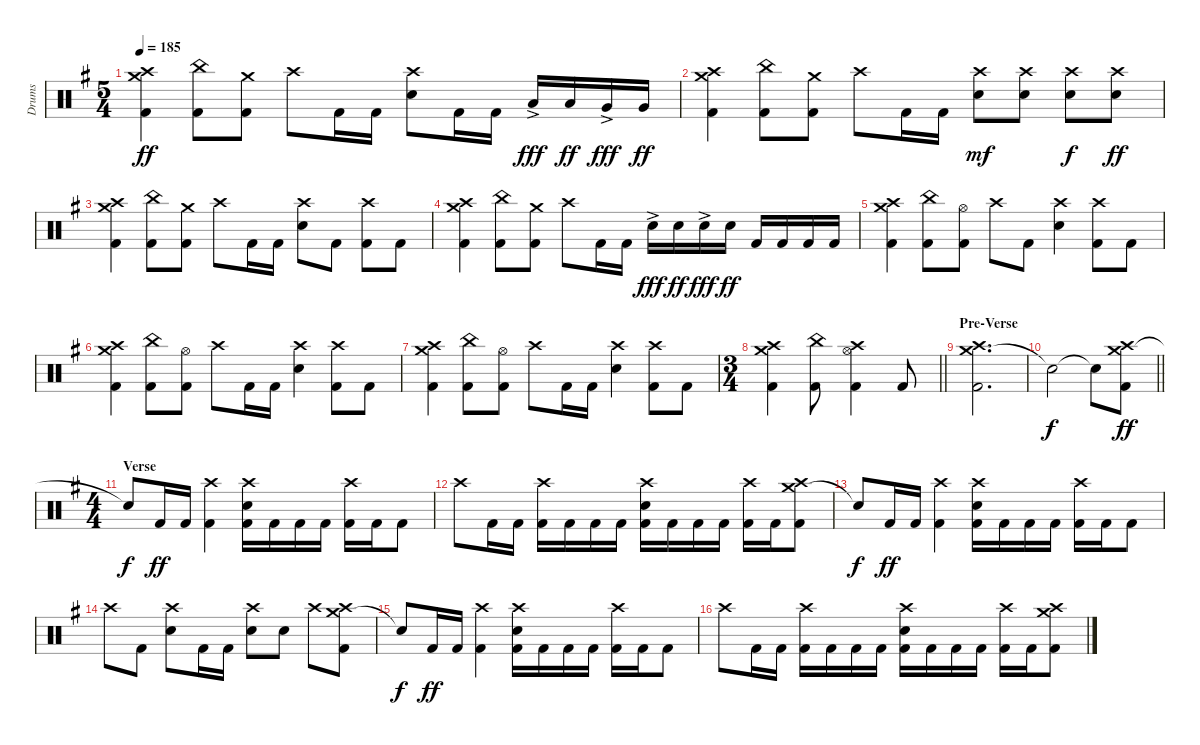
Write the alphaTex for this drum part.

\track ("Drums" "Drums") {instrument percussion}
\staff {score}
\articulation defaults
\ts (5 4)
\tempo 185
\clef neutral
\ks g
("Crash medium (hit)" "Crash high (hit)" "Kick (hit) 2").4{dy ff} ("China (hit)" "Kick (hit) 2").8 ("Crash medium (hit)" "Kick (hit) 2").8 "Crash high (hit)".8 "Kick (hit) 2".16 "Kick (hit) 2".16 ("Crash high (hit)" "Electric Snare (hit)").8 "Kick (hit) 2".16 "Kick (hit) 2".16 "Low Tom (hit)"{ac}.16{dy fff} "Low Tom (hit)".16{dy ff} "Very Low Tom (hit)"{ac}.16{dy fff} "Very Low Tom (hit)".16{dy ff} |
("Crash medium (hit)" "Crash high (hit)" "Kick (hit) 2").4 ("China (hit)" "Kick (hit) 2").8 ("Crash medium (hit)" "Kick (hit) 2").8 "Crash high (hit)".8 "Kick (hit) 2".16 "Kick (hit) 2".16 ("Crash high (hit)" "Electric Snare (hit)").8{dy mf} ("Crash high (hit)" "Electric Snare (hit)").8 ("Crash high (hit)" "Electric Snare (hit)").8{dy f} ("Crash high (hit)" "Electric Snare (hit)").8{dy ff} |
("Crash medium (hit)" "Crash high (hit)" "Kick (hit) 2").4 ("China (hit)" "Kick (hit) 2").8 ("Crash medium (hit)" "Kick (hit) 2").8 "Crash high (hit)".8 "Kick (hit) 2".16 "Kick (hit) 2".16 ("Crash high (hit)" "Electric Snare (hit)").8 "Kick (hit) 2".8 ("Crash high (hit)" "Kick (hit) 2").8 "Kick (hit) 2".8 |
("Crash medium (hit)" "Crash high (hit)" "Kick (hit) 2").4 ("China (hit)" "Kick (hit) 2").8 ("Crash medium (hit)" "Kick (hit) 2").8 "Crash high (hit)".8 "Kick (hit) 2".16 "Kick (hit) 2".16 "Electric Snare (hit)"{ac}.16{dy fff} "Electric Snare (hit)".16{dy ff} "Electric Snare (hit)"{ac}.16{dy fff} "Electric Snare (hit)".16{dy ff} "Kick (hit) 2".16 "Kick (hit) 2".16 "Kick (hit) 2".16 "Kick (hit) 2".16 |
("Crash medium (hit)" "Crash high (hit)" "Kick (hit) 2").4 ("China (hit)" "Kick (hit) 2").8 ("Hi-Hat (open)" "Kick (hit) 2").8 "Crash high (hit)".8 "Kick (hit) 2".8 ("Crash high (hit)" "Electric Snare (hit)").4 ("Crash high (hit)" "Kick (hit) 2").8 "Kick (hit) 2".8 |
("Crash medium (hit)" "Crash high (hit)" "Kick (hit) 2").4 ("China (hit)" "Kick (hit) 2").8 ("Hi-Hat (open)" "Kick (hit) 2").8 "Crash high (hit)".8 "Kick (hit) 2".16 "Kick (hit) 2".16 ("Crash high (hit)" "Electric Snare (hit)").4 ("Crash high (hit)" "Kick (hit) 2").8 "Kick (hit) 2".8 |
("Crash medium (hit)" "Crash high (hit)" "Kick (hit) 2").4 ("China (hit)" "Kick (hit) 2").8 ("Hi-Hat (open)" "Kick (hit) 2").8 "Crash high (hit)".8 "Kick (hit) 2".16 "Kick (hit) 2".16 ("Crash high (hit)" "Electric Snare (hit)").4 ("Crash high (hit)" "Kick (hit) 2").8 "Kick (hit) 2".8 |
\ts (3 4)
\barLineRight lightlight
("Crash medium (hit)" "Crash high (hit)" "Kick (hit) 2").4 ("China (hit)" "Kick (hit) 2").8 ("Crash high (hit)" "Hi-Hat (open)" "Kick (hit) 2").4 "Kick (hit) 2".8 |
\section ("" "Pre-Verse")
("Crash medium (hit)" "Crash high (hit)" "Kick (hit) 2").2{d} |
\barLineRight lightlight "Snare (hit)"{t}.2{dy f} "Snare (hit)"{t}.8
("Crash medium (hit)" "Crash high (hit)" "Kick (hit) 2").8{dy ff} |
\ts (4 4)
\section ("" "Verse")
"Snare (hit)"{t}.8{dy f} "Kick (hit) 2".16{dy ff} "Kick (hit) 2".16 ("Crash high (hit)" "Kick (hit) 2").4 ("Crash high (hit)" "Electric Snare (hit)" "Kick (hit) 2").16 "Kick (hit) 2".16 "Kick (hit) 2".16 "Kick (hit) 2".16 ("Crash high (hit)" "Kick (hit) 2").16 "Kick (hit) 2".16 "Kick (hit) 2".8 |
"Crash high (hit)".8 "Kick (hit) 2".16 "Kick (hit) 2".16 ("Crash high (hit)" "Kick (hit) 2").16 "Kick (hit) 2".16 "Kick (hit) 2".16 "Kick (hit) 2".16 ("Crash high (hit)" "Electric Snare (hit)" "Kick (hit) 2").16 "Kick (hit) 2".16 "Kick (hit) 2".16 "Kick (hit) 2".16 ("Crash high (hit)" "Kick (hit) 2").16 "Kick (hit) 2".16 ("Crash medium (hit)" "Crash high (hit)" "Kick (hit) 2").8 |
"Snare (hit)"{t}.8{dy f} "Kick (hit) 2".16{dy ff} "Kick (hit) 2".16 ("Crash high (hit)" "Kick (hit) 2").4 ("Crash high (hit)" "Electric Snare (hit)" "Kick (hit) 2").16 "Kick (hit) 2".16 "Kick (hit) 2".16 "Kick (hit) 2".16 ("Crash high (hit)" "Kick (hit) 2").16 "Kick (hit) 2".16 "Kick (hit) 2".8 |
"Crash high (hit)".8 "Kick (hit) 2".8 ("Crash high (hit)" "Electric Snare (hit)").8 "Kick (hit) 2".16 "Kick (hit) 2".16 ("Crash high (hit)" "Electric Snare (hit)").8 "Electric Snare (hit)".8 "Crash high (hit)".8 ("Crash medium (hit)" "Crash high (hit)" "Kick (hit) 2").8 |
"Snare (hit)"{t}.8{dy f} "Kick (hit) 2".16{dy ff} "Kick (hit) 2".16 ("Crash high (hit)" "Kick (hit) 2").4 ("Crash high (hit)" "Electric Snare (hit)" "Kick (hit) 2").16 "Kick (hit) 2".16 "Kick (hit) 2".16 "Kick (hit) 2".16 ("Crash high (hit)" "Kick (hit) 2").16 "Kick (hit) 2".16 "Kick (hit) 2".8 |
"Crash high (hit)".8 "Kick (hit) 2".16 "Kick (hit) 2".16 ("Crash high (hit)" "Kick (hit) 2").16 "Kick (hit) 2".16 "Kick (hit) 2".16 "Kick (hit) 2".16 ("Crash high (hit)" "Electric Snare (hit)" "Kick (hit) 2").16 "Kick (hit) 2".16 "Kick (hit) 2".16 "Kick (hit) 2".16 ("Crash high (hit)" "Kick (hit) 2").16 "Kick (hit) 2".16 ("Crash medium (hit)" "Crash high (hit)" "Kick (hit) 2").8
